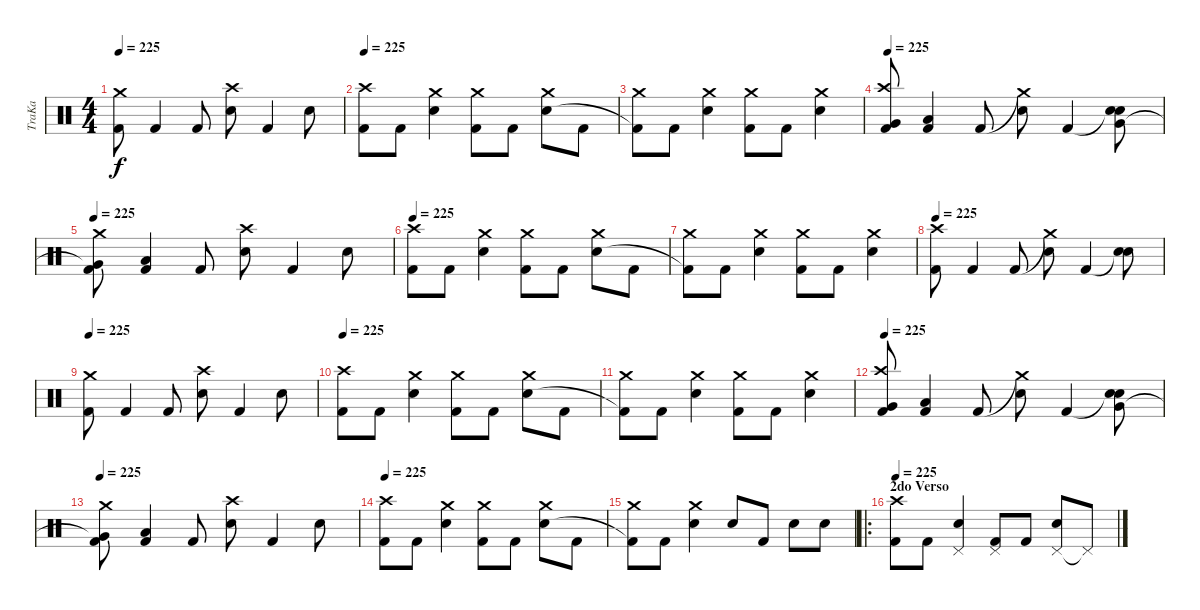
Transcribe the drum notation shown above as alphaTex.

\track ("TraKa" "TraKa") {instrument percussion}
\staff {score}
\articulation defaults
\ts (4 4)
\tempo 225
\clef neutral
\ks c
("Crash medium (hit)" "Kick (hit) 2").8{dy f} "Kick (hit) 2".4 "Kick (hit) 2".8 ("Crash high (hit)" "Electric Snare (hit)").8 "Kick (hit) 2".4 "Electric Snare (hit)".8 |
\tempo 225
("Crash high (hit)" "Kick (hit) 2").8 "Kick (hit) 2".8 ("Crash medium (hit)" "Electric Snare (hit)").4 ("Crash medium (hit)" "Kick (hit) 2").8 "Kick (hit) 2".8 ("Crash medium (hit)" "Electric Snare (hit)").8 "Kick (hit) 2".8 |
("Crash medium (hit)" "Kick (hit) 2"{t}).8 "Kick (hit) 2".8 ("Crash medium (hit)" "Electric Snare (hit)").4 ("Crash medium (hit)" "Kick (hit) 2").8 "Kick (hit) 2".8 ("Crash medium (hit)" "Electric Snare (hit)").4 |
\tempo 225
("Crash high (hit)" "Very Low Tom (hit)" "Kick (hit) 2").8 ("Low Tom (hit)" "Kick (hit) 2").4 "Kick (hit) 2".8 ("Crash medium (hit)"{t} "Electric Snare (hit)").8 "Kick (hit) 2".4 ("Snare (hit)"{t} "Very Low Tom (hit)" "Electric Snare (hit)").8 |
\tempo 225
("Crash medium (hit)" "Very Low Tom (hit)"{t} "Kick (hit) 2").8 ("Low Tom (hit)" "Kick (hit) 2").4 "Kick (hit) 2".8 ("Crash high (hit)" "Electric Snare (hit)").8 "Kick (hit) 2".4 "Electric Snare (hit)".8 |
\tempo 225
("Crash high (hit)" "Kick (hit) 2").8 "Kick (hit) 2".8 ("Crash medium (hit)" "Electric Snare (hit)").4 ("Crash medium (hit)" "Kick (hit) 2").8 "Kick (hit) 2".8 ("Crash medium (hit)" "Electric Snare (hit)").8 "Kick (hit) 2".8 |
("Crash medium (hit)" "Kick (hit) 2"{t}).8 "Kick (hit) 2".8 ("Crash medium (hit)" "Electric Snare (hit)").4 ("Crash medium (hit)" "Kick (hit) 2").8 "Kick (hit) 2".8 ("Crash medium (hit)" "Electric Snare (hit)").4 |
\tempo 225
("Crash high (hit)" "Kick (hit) 2").8 "Kick (hit) 2".4 "Kick (hit) 2".8 ("Crash medium (hit)"{t} "Electric Snare (hit)").8 "Kick (hit) 2".4 ("Snare (hit)"{t} "Electric Snare (hit)").8 |
\tempo 225
("Crash medium (hit)" "Kick (hit) 2").8 "Kick (hit) 2".4 "Kick (hit) 2".8 ("Crash high (hit)" "Electric Snare (hit)").8 "Kick (hit) 2".4 "Electric Snare (hit)".8 |
\tempo 225
("Crash high (hit)" "Kick (hit) 2").8 "Kick (hit) 2".8 ("Crash medium (hit)" "Electric Snare (hit)").4 ("Crash medium (hit)" "Kick (hit) 2").8 "Kick (hit) 2".8 ("Crash medium (hit)" "Electric Snare (hit)").8 "Kick (hit) 2".8 |
("Crash medium (hit)" "Kick (hit) 2"{t}).8 "Kick (hit) 2".8 ("Crash medium (hit)" "Electric Snare (hit)").4 ("Crash medium (hit)" "Kick (hit) 2").8 "Kick (hit) 2".8 ("Crash medium (hit)" "Electric Snare (hit)").4 |
\tempo 225
("Crash high (hit)" "Very Low Tom (hit)" "Kick (hit) 2").8 ("Low Tom (hit)" "Kick (hit) 2").4 "Kick (hit) 2".8 ("Crash medium (hit)"{t} "Electric Snare (hit)").8 "Kick (hit) 2".4 ("Snare (hit)"{t} "Very Low Tom (hit)" "Electric Snare (hit)").8 |
\tempo 225
("Crash medium (hit)" "Very Low Tom (hit)"{t} "Kick (hit) 2").8 ("Low Tom (hit)" "Kick (hit) 2").4 "Kick (hit) 2".8 ("Crash high (hit)" "Electric Snare (hit)").8 "Kick (hit) 2".4 "Electric Snare (hit)".8 |
\tempo 225
("Crash high (hit)" "Kick (hit) 2").8 "Kick (hit) 2".8 ("Crash medium (hit)" "Electric Snare (hit)").4 ("Crash medium (hit)" "Kick (hit) 2").8 "Kick (hit) 2".8 ("Crash medium (hit)" "Electric Snare (hit)").8 "Kick (hit) 2".8 |
("Crash medium (hit)" "Kick (hit) 2"{t}).8 "Kick (hit) 2".8 ("Crash medium (hit)" "Electric Snare (hit)").4 "Electric Snare (hit)".8 "Kick (hit) 2".8 "Electric Snare (hit)".8 "Electric Snare (hit)".8 |
\ro
\section ("" "2do Verso")
\tempo 225
("Crash high (hit)" "Kick (hit) 2").8 "Kick (hit) 2".8 ("Pedal Hi-Hat (hit)" "Electric Snare (hit)").4 ("Pedal Hi-Hat (hit)" "Kick (hit) 2").8 "Kick (hit) 2".8 ("Pedal Hi-Hat (hit)" "Electric Snare (hit)").8 "Pedal Hi-Hat (hit)"{t}.8
